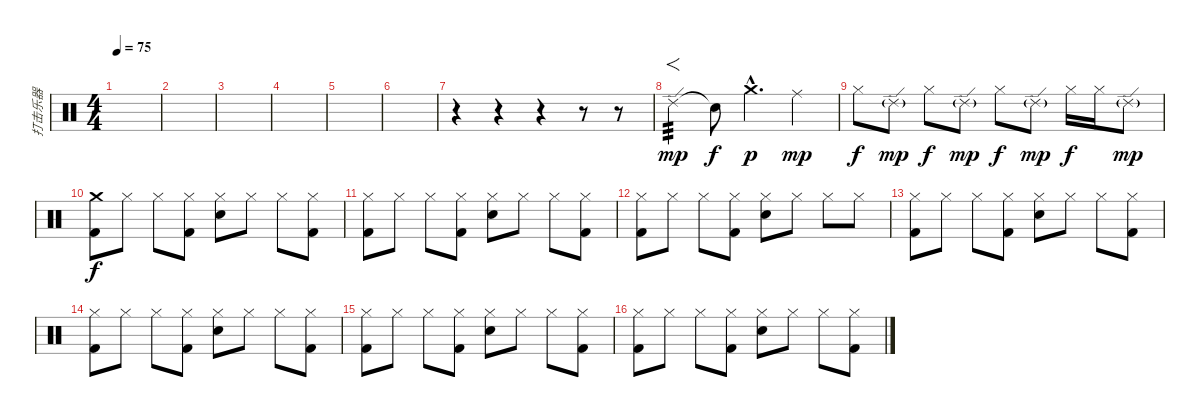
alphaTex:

\track ("打击乐器" "打击乐器") {instrument percussion}
\staff {score}
\articulation defaults
\ts (4 4)
\tempo 75
\clef neutral
\ks c
|
|
|
|
|
|
r.4 r.4 r.4 r.8 r.8 |
"Ride (edge) 2".4{f tp 3 dy mp} "Snare (hit)"{t}.8{dy f} "Crash medium (hit)"{hac}.4{d dy p} "Ride (middle)".4{dy mp} |
"Hi-Hat (closed)".8{dy f} "Ride (edge) 2"{g}.8{dy mp} "Hi-Hat (closed)".8{dy f} "Ride (edge) 2"{g}.8{dy mp} "Hi-Hat (closed)".8{dy f} "Ride (edge) 2"{g}.8{dy mp} "Hi-Hat (closed)".16{dy f} "Hi-Hat (closed)".16 "Ride (edge) 2"{g}.8{dy mp} |
("Crash medium (hit)" "Kick (hit) 2").8{dy f} "Hi-Hat (closed)".8 "Hi-Hat (closed)".8 ("Hi-Hat (closed)" "Kick (hit) 2").8 ("Hi-Hat (closed)" "Electric Snare (hit)").8 "Hi-Hat (closed)".8 "Hi-Hat (closed)".8 ("Hi-Hat (closed)" "Kick (hit) 2").8 |
("Hi-Hat (closed)" "Kick (hit) 2").8 "Hi-Hat (closed)".8 "Hi-Hat (closed)".8 ("Hi-Hat (closed)" "Kick (hit) 2").8 ("Hi-Hat (closed)" "Electric Snare (hit)").8 "Hi-Hat (closed)".8 "Hi-Hat (closed)".8 ("Hi-Hat (closed)" "Kick (hit) 2").8 |
("Hi-Hat (closed)" "Kick (hit) 2").8 "Hi-Hat (closed)".8 "Hi-Hat (closed)".8 ("Hi-Hat (closed)" "Kick (hit) 2").8 ("Hi-Hat (closed)" "Electric Snare (hit)").8 "Hi-Hat (closed)".8 "Hi-Hat (closed)".8 "Hi-Hat (closed)".8 |
("Hi-Hat (closed)" "Kick (hit) 2").8 "Hi-Hat (closed)".8 "Hi-Hat (closed)".8 ("Hi-Hat (closed)" "Kick (hit) 2").8 ("Hi-Hat (closed)" "Electric Snare (hit)").8 "Hi-Hat (closed)".8 "Hi-Hat (closed)".8 ("Hi-Hat (closed)" "Kick (hit) 2").8 |
("Hi-Hat (closed)" "Kick (hit) 2").8 "Hi-Hat (closed)".8 "Hi-Hat (closed)".8 ("Hi-Hat (closed)" "Kick (hit) 2").8 ("Hi-Hat (closed)" "Electric Snare (hit)").8 "Hi-Hat (closed)".8 "Hi-Hat (closed)".8 ("Hi-Hat (closed)" "Kick (hit) 2").8 |
("Hi-Hat (closed)" "Kick (hit) 2").8 "Hi-Hat (closed)".8 "Hi-Hat (closed)".8 ("Hi-Hat (closed)" "Kick (hit) 2").8 ("Hi-Hat (closed)" "Electric Snare (hit)").8 "Hi-Hat (closed)".8 "Hi-Hat (closed)".8 ("Hi-Hat (closed)" "Kick (hit) 2").8 |
("Hi-Hat (closed)" "Kick (hit) 2").8 "Hi-Hat (closed)".8 "Hi-Hat (closed)".8 ("Hi-Hat (closed)" "Kick (hit) 2").8 ("Hi-Hat (closed)" "Electric Snare (hit)").8 "Hi-Hat (closed)".8 "Hi-Hat (closed)".8 ("Hi-Hat (closed)" "Kick (hit) 2").8
